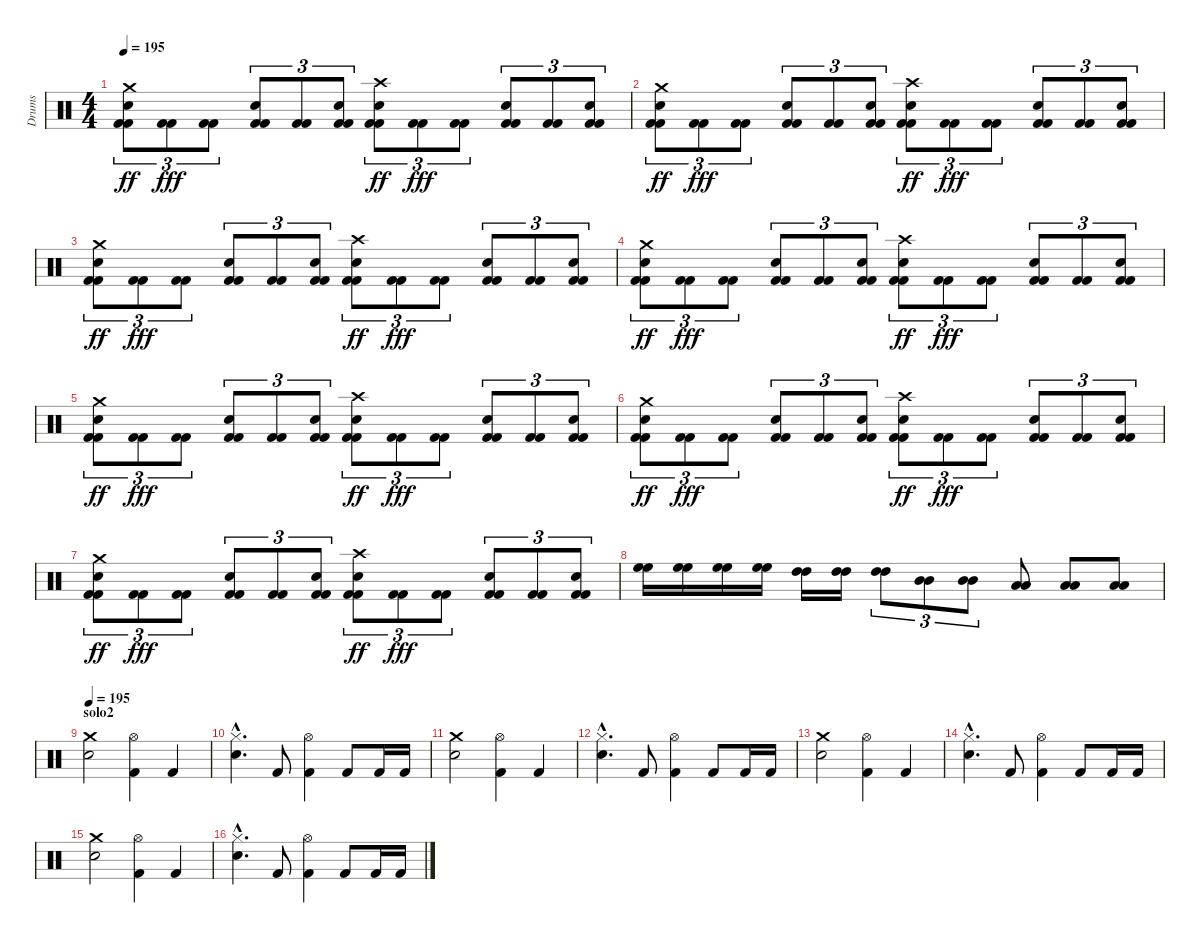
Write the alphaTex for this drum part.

\track ("Drums" "Drums") {instrument percussion}
\staff {score}
\articulation defaults
\ts (4 4)
\tempo 195
\clef neutral
\ks c
("Kick (hit) 2" "Kick (hit) 2" "Electric Snare (hit)" "Crash medium (hit)").8{tu (3 2) dy ff} ("Kick (hit) 2" "Kick (hit) 2").8{tu (3 2) dy fff} ("Kick (hit) 2" "Kick (hit) 2").8{tu (3 2)} ("Kick (hit) 2" "Kick (hit) 2" "Electric Snare (hit)").8{tu (3 2)} ("Kick (hit) 2" "Kick (hit) 2").8{tu (3 2)} ("Kick (hit) 2" "Kick (hit) 2" "Electric Snare (hit)").8{tu (3 2)} ("Kick (hit) 2" "Kick (hit) 2" "Snare (hit) 2" "Crash high (hit)").8{tu (3 2) dy ff} ("Kick (hit) 2" "Kick (hit) 2").8{tu (3 2) dy fff} ("Kick (hit) 2" "Kick (hit) 2").8{tu (3 2)} ("Kick (hit) 2" "Kick (hit) 2" "Snare (hit) 2").8{tu (3 2)} ("Kick (hit) 2" "Kick (hit) 2").8{tu (3 2)} ("Kick (hit) 2" "Kick (hit) 2" "Snare (hit) 2").8{tu (3 2)} |
("Kick (hit) 2" "Kick (hit) 2" "Electric Snare (hit)" "Crash medium (hit)").8{tu (3 2) dy ff} ("Kick (hit) 2" "Kick (hit) 2").8{tu (3 2) dy fff} ("Kick (hit) 2" "Kick (hit) 2").8{tu (3 2)} ("Kick (hit) 2" "Kick (hit) 2" "Electric Snare (hit)").8{tu (3 2)} ("Kick (hit) 2" "Kick (hit) 2").8{tu (3 2)} ("Kick (hit) 2" "Kick (hit) 2" "Electric Snare (hit)").8{tu (3 2)} ("Kick (hit) 2" "Kick (hit) 2" "Snare (hit) 2" "Crash high (hit)").8{tu (3 2) dy ff} ("Kick (hit) 2" "Kick (hit) 2").8{tu (3 2) dy fff} ("Kick (hit) 2" "Kick (hit) 2").8{tu (3 2)} ("Kick (hit) 2" "Kick (hit) 2" "Snare (hit) 2").8{tu (3 2)} ("Kick (hit) 2" "Kick (hit) 2").8{tu (3 2)} ("Kick (hit) 2" "Kick (hit) 2" "Snare (hit) 2").8{tu (3 2)} |
("Kick (hit) 2" "Kick (hit) 2" "Electric Snare (hit)" "Crash medium (hit)").8{tu (3 2) dy ff} ("Kick (hit) 2" "Kick (hit) 2").8{tu (3 2) dy fff} ("Kick (hit) 2" "Kick (hit) 2").8{tu (3 2)} ("Kick (hit) 2" "Kick (hit) 2" "Electric Snare (hit)").8{tu (3 2)} ("Kick (hit) 2" "Kick (hit) 2").8{tu (3 2)} ("Kick (hit) 2" "Kick (hit) 2" "Electric Snare (hit)").8{tu (3 2)} ("Kick (hit) 2" "Kick (hit) 2" "Snare (hit) 2" "Crash high (hit)").8{tu (3 2) dy ff} ("Kick (hit) 2" "Kick (hit) 2").8{tu (3 2) dy fff} ("Kick (hit) 2" "Kick (hit) 2").8{tu (3 2)} ("Kick (hit) 2" "Kick (hit) 2" "Snare (hit) 2").8{tu (3 2)} ("Kick (hit) 2" "Kick (hit) 2").8{tu (3 2)} ("Kick (hit) 2" "Kick (hit) 2" "Snare (hit) 2").8{tu (3 2)} |
("Kick (hit) 2" "Kick (hit) 2" "Electric Snare (hit)" "Crash medium (hit)").8{tu (3 2) dy ff} ("Kick (hit) 2" "Kick (hit) 2").8{tu (3 2) dy fff} ("Kick (hit) 2" "Kick (hit) 2").8{tu (3 2)} ("Kick (hit) 2" "Kick (hit) 2" "Electric Snare (hit)").8{tu (3 2)} ("Kick (hit) 2" "Kick (hit) 2").8{tu (3 2)} ("Kick (hit) 2" "Kick (hit) 2" "Electric Snare (hit)").8{tu (3 2)} ("Kick (hit) 2" "Kick (hit) 2" "Snare (hit) 2" "Crash high (hit)").8{tu (3 2) dy ff} ("Kick (hit) 2" "Kick (hit) 2").8{tu (3 2) dy fff} ("Kick (hit) 2" "Kick (hit) 2").8{tu (3 2)} ("Kick (hit) 2" "Kick (hit) 2" "Snare (hit) 2").8{tu (3 2)} ("Kick (hit) 2" "Kick (hit) 2").8{tu (3 2)} ("Kick (hit) 2" "Kick (hit) 2" "Snare (hit) 2").8{tu (3 2)} |
("Kick (hit) 2" "Kick (hit) 2" "Electric Snare (hit)" "Crash medium (hit)").8{tu (3 2) dy ff} ("Kick (hit) 2" "Kick (hit) 2").8{tu (3 2) dy fff} ("Kick (hit) 2" "Kick (hit) 2").8{tu (3 2)} ("Kick (hit) 2" "Kick (hit) 2" "Electric Snare (hit)").8{tu (3 2)} ("Kick (hit) 2" "Kick (hit) 2").8{tu (3 2)} ("Kick (hit) 2" "Kick (hit) 2" "Electric Snare (hit)").8{tu (3 2)} ("Kick (hit) 2" "Kick (hit) 2" "Snare (hit) 2" "Crash high (hit)").8{tu (3 2) dy ff} ("Kick (hit) 2" "Kick (hit) 2").8{tu (3 2) dy fff} ("Kick (hit) 2" "Kick (hit) 2").8{tu (3 2)} ("Kick (hit) 2" "Kick (hit) 2" "Snare (hit) 2").8{tu (3 2)} ("Kick (hit) 2" "Kick (hit) 2").8{tu (3 2)} ("Kick (hit) 2" "Kick (hit) 2" "Snare (hit) 2").8{tu (3 2)} |
("Kick (hit) 2" "Kick (hit) 2" "Electric Snare (hit)" "Crash medium (hit)").8{tu (3 2) dy ff} ("Kick (hit) 2" "Kick (hit) 2").8{tu (3 2) dy fff} ("Kick (hit) 2" "Kick (hit) 2").8{tu (3 2)} ("Kick (hit) 2" "Kick (hit) 2" "Electric Snare (hit)").8{tu (3 2)} ("Kick (hit) 2" "Kick (hit) 2").8{tu (3 2)} ("Kick (hit) 2" "Kick (hit) 2" "Electric Snare (hit)").8{tu (3 2)} ("Kick (hit) 2" "Kick (hit) 2" "Snare (hit) 2" "Crash high (hit)").8{tu (3 2) dy ff} ("Kick (hit) 2" "Kick (hit) 2").8{tu (3 2) dy fff} ("Kick (hit) 2" "Kick (hit) 2").8{tu (3 2)} ("Kick (hit) 2" "Kick (hit) 2" "Snare (hit) 2").8{tu (3 2)} ("Kick (hit) 2" "Kick (hit) 2").8{tu (3 2)} ("Kick (hit) 2" "Kick (hit) 2" "Snare (hit) 2").8{tu (3 2)} |
("Kick (hit) 2" "Kick (hit) 2" "Electric Snare (hit)" "Crash medium (hit)").8{tu (3 2) dy ff} ("Kick (hit) 2" "Kick (hit) 2").8{tu (3 2) dy fff} ("Kick (hit) 2" "Kick (hit) 2").8{tu (3 2)} ("Kick (hit) 2" "Kick (hit) 2" "Electric Snare (hit)").8{tu (3 2)} ("Kick (hit) 2" "Kick (hit) 2").8{tu (3 2)} ("Kick (hit) 2" "Kick (hit) 2" "Electric Snare (hit)").8{tu (3 2)} ("Kick (hit) 2" "Kick (hit) 2" "Snare (hit) 2" "Crash high (hit)").8{tu (3 2) dy ff} ("Kick (hit) 2" "Kick (hit) 2").8{tu (3 2) dy fff} ("Kick (hit) 2" "Kick (hit) 2").8{tu (3 2)} ("Kick (hit) 2" "Kick (hit) 2" "Snare (hit) 2").8{tu (3 2)} ("Kick (hit) 2" "Kick (hit) 2").8{tu (3 2)} ("Kick (hit) 2" "Kick (hit) 2" "Snare (hit) 2").8{tu (3 2)} |
("High Floor Tom (hit)" "High Floor Tom (hit)").16 ("High Floor Tom (hit)" "High Floor Tom (hit)").16 ("High Floor Tom (hit)" "High Floor Tom (hit)").16 ("High Floor Tom (hit)" "High Floor Tom (hit)").16 ("High Tom (hit)" "High Tom (hit)").16 ("High Tom (hit)" "High Tom (hit)").16 ("High Tom (hit)" "High Tom (hit)").8{tu (3 2)} ("Mid Tom (hit)" "Mid Tom (hit)").8{tu (3 2)} ("Mid Tom (hit)" "Mid Tom (hit)").8{tu (3 2)} ("Low Tom (hit)" "Low Tom (hit)").8 ("Low Tom (hit)" "Low Tom (hit)").8 ("Low Tom (hit)" "Low Tom (hit)").8 |
\section ("" "solo2")
\tempo 195
("Electric Snare (hit)" "Crash medium (hit)").2 ("Kick (hit) 2" "Hi-Hat (open)").4 "Kick (hit) 2".4 |
("Hi-Hat (closed)"{hac} "Snare (hit) 2"{hac}).4{d} "Kick (hit) 2".8 ("Hi-Hat (open)" "Kick (hit) 2").4 "Kick (hit) 2".8 "Kick (hit) 2".16 "Kick (hit) 2".16 |
("Electric Snare (hit)" "Crash medium (hit)").2 ("Kick (hit) 2" "Hi-Hat (open)").4 "Kick (hit) 2".4 |
("Hi-Hat (closed)"{hac} "Snare (hit) 2"{hac}).4{d} "Kick (hit) 2".8 ("Hi-Hat (open)" "Kick (hit) 2").4 "Kick (hit) 2".8 "Kick (hit) 2".16 "Kick (hit) 2".16 |
("Electric Snare (hit)" "Crash medium (hit)").2 ("Kick (hit) 2" "Hi-Hat (open)").4 "Kick (hit) 2".4 |
("Hi-Hat (closed)"{hac} "Snare (hit) 2"{hac}).4{d} "Kick (hit) 2".8 ("Hi-Hat (open)" "Kick (hit) 2").4 "Kick (hit) 2".8 "Kick (hit) 2".16 "Kick (hit) 2".16 |
("Electric Snare (hit)" "Crash medium (hit)").2 ("Kick (hit) 2" "Hi-Hat (open)").4 "Kick (hit) 2".4 |
("Hi-Hat (closed)"{hac} "Snare (hit) 2"{hac}).4{d} "Kick (hit) 2".8 ("Hi-Hat (open)" "Kick (hit) 2").4 "Kick (hit) 2".8 "Kick (hit) 2".16 "Kick (hit) 2".16
